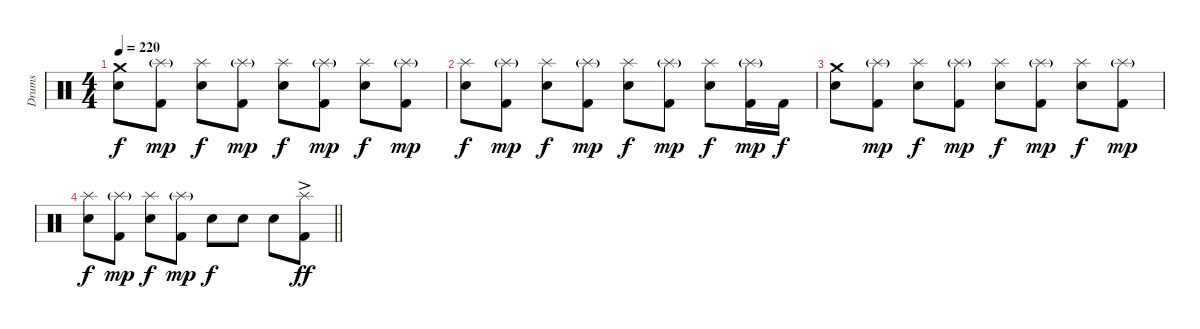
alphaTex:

\track ("Drums" "Drums") {instrument percussion}
\staff {score}
\articulation defaults
\ts (4 4)
\tempo 220
\clef neutral
\ks c
("Crash medium (hit)" "Electric Snare (hit)").8{dy f} ("Splash (hit)"{g} "Kick (hit) 2").8{dy mp} ("Splash (hit)" "Electric Snare (hit)").8{dy f} ("Splash (hit)"{g} "Kick (hit) 2").8{dy mp} ("Splash (hit)" "Electric Snare (hit)").8{dy f} ("Splash (hit)"{g} "Kick (hit) 2").8{dy mp} ("Splash (hit)" "Electric Snare (hit)").8{dy f} ("Splash (hit)"{g} "Kick (hit) 2").8{dy mp} |
("Splash (hit)" "Electric Snare (hit)").8{dy f} ("Splash (hit)"{g} "Kick (hit) 2").8{dy mp} ("Splash (hit)" "Electric Snare (hit)").8{dy f} ("Splash (hit)"{g} "Kick (hit) 2").8{dy mp} ("Splash (hit)" "Electric Snare (hit)").8{dy f} ("Splash (hit)"{g} "Kick (hit) 2").8{dy mp} ("Splash (hit)" "Electric Snare (hit)").8{dy f} ("Splash (hit)"{g} "Kick (hit) 2").16{dy mp} "Kick (hit) 2".16{dy f} |
("Crash medium (hit)" "Electric Snare (hit)").8 ("Splash (hit)"{g} "Kick (hit) 2").8{dy mp} ("Splash (hit)" "Electric Snare (hit)").8{dy f} ("Splash (hit)"{g} "Kick (hit) 2").8{dy mp} ("Splash (hit)" "Electric Snare (hit)").8{dy f} ("Splash (hit)"{g} "Kick (hit) 2").8{dy mp} ("Splash (hit)" "Electric Snare (hit)").8{dy f} ("Splash (hit)"{g} "Kick (hit) 2").8{dy mp} |
\barLineRight lightlight
("Splash (hit)" "Electric Snare (hit)").8{dy f} ("Splash (hit)"{g} "Kick (hit) 2").8{dy mp} ("Splash (hit)" "Electric Snare (hit)").8{dy f} ("Splash (hit)"{g} "Kick (hit) 2").8{dy mp} "Electric Snare (hit)".8{dy f} "Electric Snare (hit)".8 "Electric Snare (hit)".8 ("Splash (hit)"{ac} "Kick (hit) 2").8{dy ff}
